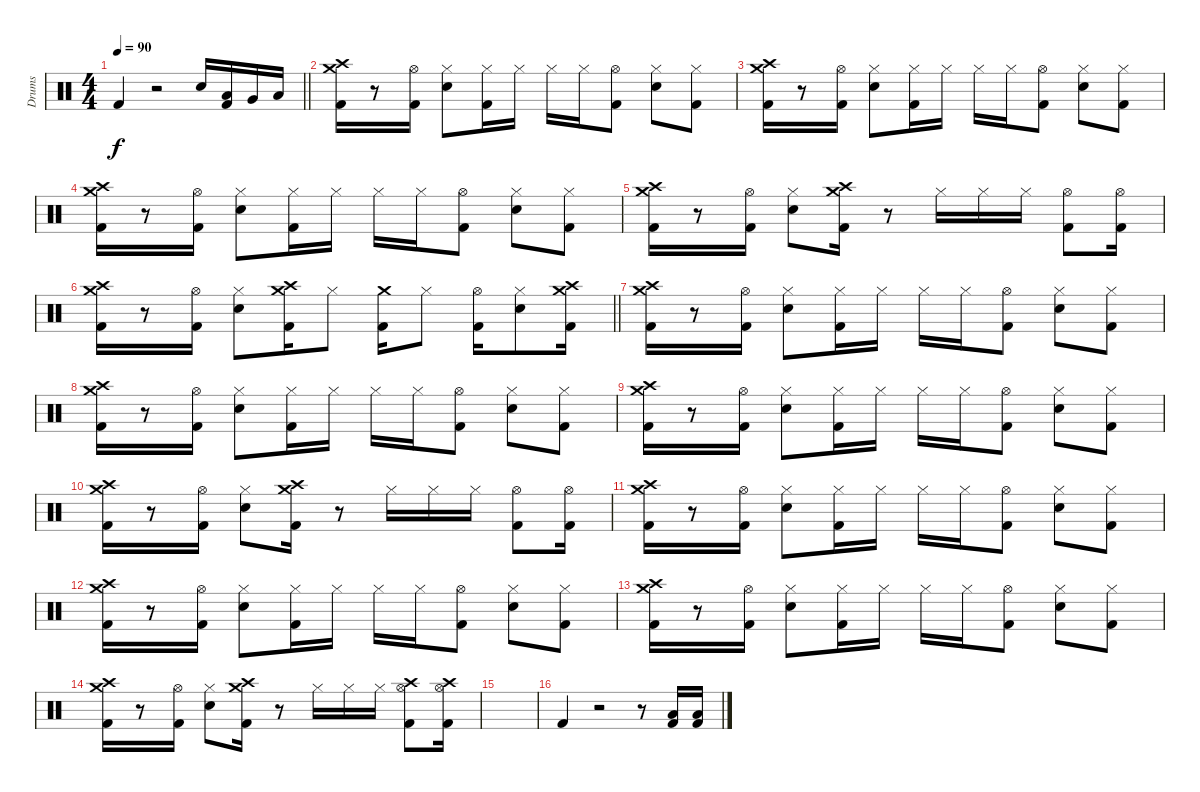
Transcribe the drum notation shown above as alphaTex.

\track ("Drums" "Drums") {instrument percussion}
\staff {score}
\articulation defaults
\ts (4 4)
\tempo 90
\clef neutral
\barLineRight lightlight
\ks c "Kick (hit) 2".4{dy f}
r.2 "Electric Snare (hit)".16 ("Low Tom (hit)" "Kick (hit) 2").16 "Very Low Tom (hit)".16 "Low Floor Tom (hit)".16 |
("Crash high (hit)" "Crash medium (hit)" "Kick (hit) 2").16 r.8 ("Hi-Hat (open)" "Kick (hit) 2").16 ("Hi-Hat (closed)" "Electric Snare (hit)").8 ("Hi-Hat (closed)" "Kick (hit) 2").16 "Hi-Hat (closed)".16 "Hi-Hat (closed)".16 "Hi-Hat (closed)".16 ("Hi-Hat (open)" "Kick (hit) 2").8 ("Hi-Hat (closed)" "Electric Snare (hit)").8 ("Hi-Hat (closed)" "Kick (hit) 2").8 |
("Crash high (hit)" "Crash medium (hit)" "Kick (hit) 2").16 r.8 ("Hi-Hat (open)" "Kick (hit) 2").16 ("Hi-Hat (closed)" "Electric Snare (hit)").8 ("Hi-Hat (closed)" "Kick (hit) 2").16 "Hi-Hat (closed)".16 "Hi-Hat (closed)".16 "Hi-Hat (closed)".16 ("Hi-Hat (open)" "Kick (hit) 2").8 ("Hi-Hat (closed)" "Electric Snare (hit)").8 ("Hi-Hat (closed)" "Kick (hit) 2").8 |
("Crash high (hit)" "Crash medium (hit)" "Kick (hit) 2").16 r.8 ("Hi-Hat (open)" "Kick (hit) 2").16 ("Hi-Hat (closed)" "Electric Snare (hit)").8 ("Hi-Hat (closed)" "Kick (hit) 2").16 "Hi-Hat (closed)".16 "Hi-Hat (closed)".16 "Hi-Hat (closed)".16 ("Hi-Hat (open)" "Kick (hit) 2").8 ("Hi-Hat (closed)" "Electric Snare (hit)").8 ("Hi-Hat (closed)" "Kick (hit) 2").8 |
("Crash high (hit)" "Crash medium (hit)" "Kick (hit) 2").16 r.8 ("Hi-Hat (open)" "Kick (hit) 2").16 ("Hi-Hat (closed)" "Electric Snare (hit)").8 ("Crash high (hit)" "Crash medium (hit)" "Kick (hit) 2").16 r.8 "Hi-Hat (closed)".16 "Hi-Hat (closed)".16 "Hi-Hat (closed)".16 ("Hi-Hat (open)" "Kick (hit) 2").8 ("Hi-Hat (open)" "Kick (hit) 2").16 |
\barLineRight lightlight
("Crash high (hit)" "Crash medium (hit)" "Kick (hit) 2").16 r.8 ("Hi-Hat (open)" "Kick (hit) 2").16 ("Hi-Hat (closed)" "Electric Snare (hit)").8 ("Crash high (hit)" "Crash medium (hit)" "Kick (hit) 2").16 "Hi-Hat (closed)".8 ("Crash medium (hit)" "Kick (hit) 2").16 "Hi-Hat (closed)".8 ("Hi-Hat (open)" "Kick (hit) 2").16 ("Hi-Hat (closed)" "Electric Snare (hit)").8 ("Crash high (hit)" "Crash medium (hit)" "Kick (hit) 2").16 |
("Crash high (hit)" "Crash medium (hit)" "Kick (hit) 2").16 r.8 ("Hi-Hat (open)" "Kick (hit) 2").16 ("Hi-Hat (closed)" "Electric Snare (hit)").8 ("Hi-Hat (closed)" "Kick (hit) 2").16 "Hi-Hat (closed)".16 "Hi-Hat (closed)".16 "Hi-Hat (closed)".16 ("Hi-Hat (open)" "Kick (hit) 2").8 ("Hi-Hat (closed)" "Electric Snare (hit)").8 ("Hi-Hat (closed)" "Kick (hit) 2").8 |
("Crash high (hit)" "Crash medium (hit)" "Kick (hit) 2").16 r.8 ("Hi-Hat (open)" "Kick (hit) 2").16 ("Hi-Hat (closed)" "Electric Snare (hit)").8 ("Hi-Hat (closed)" "Kick (hit) 2").16 "Hi-Hat (closed)".16 "Hi-Hat (closed)".16 "Hi-Hat (closed)".16 ("Hi-Hat (open)" "Kick (hit) 2").8 ("Hi-Hat (closed)" "Electric Snare (hit)").8 ("Hi-Hat (closed)" "Kick (hit) 2").8 |
("Crash high (hit)" "Crash medium (hit)" "Kick (hit) 2").16 r.8 ("Hi-Hat (open)" "Kick (hit) 2").16 ("Hi-Hat (closed)" "Electric Snare (hit)").8 ("Hi-Hat (closed)" "Kick (hit) 2").16 "Hi-Hat (closed)".16 "Hi-Hat (closed)".16 "Hi-Hat (closed)".16 ("Hi-Hat (open)" "Kick (hit) 2").8 ("Hi-Hat (closed)" "Electric Snare (hit)").8 ("Hi-Hat (closed)" "Kick (hit) 2").8 |
("Crash high (hit)" "Crash medium (hit)" "Kick (hit) 2").16 r.8 ("Hi-Hat (open)" "Kick (hit) 2").16 ("Hi-Hat (closed)" "Electric Snare (hit)").8 ("Crash high (hit)" "Crash medium (hit)" "Kick (hit) 2").16 r.8 "Hi-Hat (closed)".16 "Hi-Hat (closed)".16 "Hi-Hat (closed)".16 ("Hi-Hat (open)" "Kick (hit) 2").8 ("Hi-Hat (open)" "Kick (hit) 2").16 |
("Crash high (hit)" "Crash medium (hit)" "Kick (hit) 2").16 r.8 ("Hi-Hat (open)" "Kick (hit) 2").16 ("Hi-Hat (closed)" "Electric Snare (hit)").8 ("Hi-Hat (closed)" "Kick (hit) 2").16 "Hi-Hat (closed)".16 "Hi-Hat (closed)".16 "Hi-Hat (closed)".16 ("Hi-Hat (open)" "Kick (hit) 2").8 ("Hi-Hat (closed)" "Electric Snare (hit)").8 ("Hi-Hat (closed)" "Kick (hit) 2").8 |
("Crash high (hit)" "Crash medium (hit)" "Kick (hit) 2").16 r.8 ("Hi-Hat (open)" "Kick (hit) 2").16 ("Hi-Hat (closed)" "Electric Snare (hit)").8 ("Hi-Hat (closed)" "Kick (hit) 2").16 "Hi-Hat (closed)".16 "Hi-Hat (closed)".16 "Hi-Hat (closed)".16 ("Hi-Hat (open)" "Kick (hit) 2").8 ("Hi-Hat (closed)" "Electric Snare (hit)").8 ("Hi-Hat (closed)" "Kick (hit) 2").8 |
("Crash high (hit)" "Crash medium (hit)" "Kick (hit) 2").16 r.8 ("Hi-Hat (open)" "Kick (hit) 2").16 ("Hi-Hat (closed)" "Electric Snare (hit)").8 ("Hi-Hat (closed)" "Kick (hit) 2").16 "Hi-Hat (closed)".16 "Hi-Hat (closed)".16 "Hi-Hat (closed)".16 ("Hi-Hat (open)" "Kick (hit) 2").8 ("Hi-Hat (closed)" "Electric Snare (hit)").8 ("Hi-Hat (closed)" "Kick (hit) 2").8 |
("Crash high (hit)" "Crash medium (hit)" "Kick (hit) 2").16 r.8 ("Hi-Hat (open)" "Kick (hit) 2").16 ("Hi-Hat (closed)" "Electric Snare (hit)").8 ("Crash high (hit)" "Crash medium (hit)" "Kick (hit) 2").16 r.8 "Hi-Hat (closed)".16 "Hi-Hat (closed)".16 "Hi-Hat (closed)".16 ("Crash high (hit)" "Hi-Hat (open)" "Kick (hit) 2").8 ("Crash high (hit)" "Hi-Hat (open)" "Kick (hit) 2").16 |
|
"Kick (hit) 2".4 r.2 r.8 ("Low Tom (hit)" "Kick (hit) 2").16 ("Low Tom (hit)" "Kick (hit) 2").16
